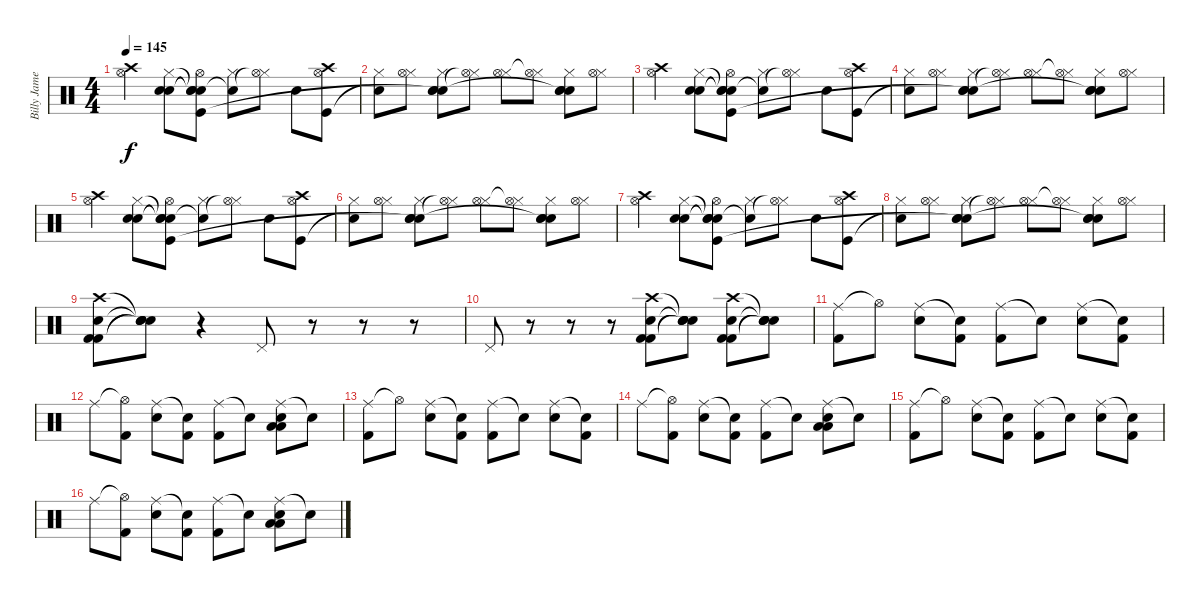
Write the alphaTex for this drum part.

\track ("Billy James (Drums)" "Billy Jame") {instrument percussion}
\staff {score}
\articulation defaults
\ts (4 4)
\tempo 145
\clef neutral
\ks c
("Hi-Hat (open)" "Crash high (hit)").4{dy f volume 14} ("Snare (hit) 2" "Snare (hit) 2" "Hi-Hat (closed)").8 ("Snare (hit)"{t} "Snare (hit)"{t} "Snare (hit)"{t} "Kick (hit)" "Hi-Hat (open)").8 ("Hi-Hat (closed)" "Snare (hit)"{t}).8 ("Hi-Hat (closed)" "Hi-Hat (open)"{t}).8 "Snare (hit) 2".8 ("Crash high (hit)" "Kick (hit)" "Hi-Hat (open)").8 |
("Hi-Hat (closed)" "Snare (hit)"{t}).8 ("Hi-Hat (closed)" "Hi-Hat (open)").8 ("Hi-Hat (closed)" "Snare (hit) 2" "Snare (hit) 2" "Snare (hit)"{t}).8 ("Hi-Hat (closed)" "Hi-Hat (open)"{t}).8 ("Hi-Hat (closed)" "Hi-Hat (open)").8 ("Hi-Hat (closed)" "Hi-Hat (open)"{t}).8 ("Hi-Hat (closed)" "Snare (hit) 2" "Snare (hit) 2" "Snare (hit)"{t}).8 ("Hi-Hat (closed)" "Hi-Hat (open)").8 |
("Hi-Hat (open)" "Crash high (hit)").4{volume 14} ("Snare (hit) 2" "Snare (hit) 2" "Hi-Hat (closed)").8 ("Snare (hit)"{t} "Snare (hit)"{t} "Snare (hit)"{t} "Kick (hit)" "Hi-Hat (open)").8 ("Hi-Hat (closed)" "Snare (hit)"{t}).8 ("Hi-Hat (closed)" "Hi-Hat (open)"{t}).8 "Snare (hit) 2".8 ("Crash high (hit)" "Kick (hit)" "Hi-Hat (open)").8 |
("Hi-Hat (closed)" "Snare (hit)"{t}).8 ("Hi-Hat (closed)" "Hi-Hat (open)").8 ("Hi-Hat (closed)" "Snare (hit) 2" "Snare (hit) 2" "Snare (hit)"{t}).8 ("Hi-Hat (closed)" "Hi-Hat (open)"{t}).8 ("Hi-Hat (closed)" "Hi-Hat (open)").8 ("Hi-Hat (closed)" "Hi-Hat (open)"{t}).8 ("Hi-Hat (closed)" "Snare (hit) 2" "Snare (hit) 2" "Snare (hit)"{t}).8 ("Hi-Hat (closed)" "Hi-Hat (open)").8 |
("Hi-Hat (open)" "Crash high (hit)").4{volume 14} ("Snare (hit) 2" "Snare (hit) 2" "Hi-Hat (closed)").8 ("Snare (hit)"{t} "Snare (hit)"{t} "Snare (hit)"{t} "Kick (hit)" "Hi-Hat (open)").8 ("Hi-Hat (closed)" "Snare (hit)"{t}).8 ("Hi-Hat (closed)" "Hi-Hat (open)"{t}).8 "Snare (hit) 2".8 ("Crash high (hit)" "Kick (hit)" "Hi-Hat (open)").8 |
("Hi-Hat (closed)" "Snare (hit)"{t}).8 ("Hi-Hat (closed)" "Hi-Hat (open)").8 ("Hi-Hat (closed)" "Snare (hit) 2" "Snare (hit) 2" "Snare (hit)"{t}).8 ("Hi-Hat (closed)" "Hi-Hat (open)"{t}).8 ("Hi-Hat (closed)" "Hi-Hat (open)").8 ("Hi-Hat (closed)" "Hi-Hat (open)"{t}).8 ("Hi-Hat (closed)" "Snare (hit) 2" "Snare (hit) 2" "Snare (hit)"{t}).8 ("Hi-Hat (closed)" "Hi-Hat (open)").8 |
("Hi-Hat (open)" "Crash high (hit)").4{volume 14} ("Snare (hit) 2" "Snare (hit) 2" "Hi-Hat (closed)").8 ("Snare (hit)"{t} "Snare (hit)"{t} "Snare (hit)"{t} "Kick (hit)" "Hi-Hat (open)").8 ("Hi-Hat (closed)" "Snare (hit)"{t}).8 ("Hi-Hat (closed)" "Hi-Hat (open)"{t}).8 "Snare (hit) 2".8 ("Crash high (hit)" "Kick (hit)" "Hi-Hat (open)").8 |
("Hi-Hat (closed)" "Snare (hit)"{t}).8 ("Hi-Hat (closed)" "Hi-Hat (open)").8 ("Hi-Hat (closed)" "Snare (hit) 2" "Snare (hit) 2" "Snare (hit)"{t}).8 ("Hi-Hat (closed)" "Hi-Hat (open)"{t}).8 ("Hi-Hat (closed)" "Hi-Hat (open)").8 ("Hi-Hat (closed)" "Hi-Hat (open)"{t}).8 ("Hi-Hat (closed)" "Snare (hit) 2" "Snare (hit) 2" "Snare (hit)"{t}).8 ("Hi-Hat (closed)" "Hi-Hat (open)").8 |
("Crash high (hit)" "Kick (hit) 2" "Kick (hit) 2" "Snare (hit) 2").8 ("Snare (hit)"{t} "Snare (hit)"{t} "Snare (hit)"{t} "Snare (hit)"{t}).8 r.4 "Pedal Hi-Hat (hit)".8 r.8 r.8 r.8 |
"Pedal Hi-Hat (hit)".8 r.8 r.8 r.8 ("Snare (hit) 2" "Kick (hit) 2" "Crash high (hit)" "Kick (hit) 2").8 ("Snare (hit)"{t} "Snare (hit)"{t} "Snare (hit)"{t} "Snare (hit)"{t}).8 ("Crash high (hit)" "Kick (hit) 2" "Kick (hit) 2" "Snare (hit) 2").8 ("Snare (hit)"{t} "Snare (hit)"{t} "Snare (hit)"{t} "Snare (hit)"{t}).8 |
("Ride (middle)" "Kick (hit) 2").8 "Hi-Hat (open)"{t}.8 ("Ride (middle)" "Snare (hit) 2").8 ("Snare (hit)"{t} "Kick (hit) 2").8 ("Ride (middle)" "Kick (hit) 2").8 "Snare (hit)"{t}.8 ("Ride (middle)" "Snare (hit) 2").8 ("Snare (hit)"{t} "Kick (hit) 2").8 |
"Ride (middle)".8 ("Hi-Hat (open)"{t} "Kick (hit) 2").8 ("Ride (middle)" "Snare (hit) 2").8 ("Snare (hit)"{t} "Kick (hit) 2").8 ("Ride (middle)" "Kick (hit) 2").8 "Snare (hit)"{t}.8 ("Ride (middle)" "Low Floor Tom (hit)" "Low Floor Tom (hit)" "Snare (hit) 2").8 "Snare (hit)"{t}.8 |
("Ride (middle)" "Kick (hit) 2").8 "Hi-Hat (open)"{t}.8 ("Ride (middle)" "Snare (hit) 2").8 ("Snare (hit)"{t} "Kick (hit) 2").8 ("Ride (middle)" "Kick (hit) 2").8 "Snare (hit)"{t}.8 ("Ride (middle)" "Snare (hit) 2").8 ("Snare (hit)"{t} "Kick (hit) 2").8 |
"Ride (middle)".8 ("Hi-Hat (open)"{t} "Kick (hit) 2").8 ("Ride (middle)" "Snare (hit) 2").8 ("Snare (hit)"{t} "Kick (hit) 2").8 ("Ride (middle)" "Kick (hit) 2").8 "Snare (hit)"{t}.8 ("Ride (middle)" "Low Floor Tom (hit)" "Low Floor Tom (hit)" "Snare (hit) 2").8 "Snare (hit)"{t}.8 |
("Ride (middle)" "Kick (hit) 2").8 "Hi-Hat (open)"{t}.8 ("Ride (middle)" "Snare (hit) 2").8 ("Snare (hit)"{t} "Kick (hit) 2").8 ("Ride (middle)" "Kick (hit) 2").8 "Snare (hit)"{t}.8 ("Ride (middle)" "Snare (hit) 2").8 ("Snare (hit)"{t} "Kick (hit) 2").8 |
"Ride (middle)".8 ("Hi-Hat (open)"{t} "Kick (hit) 2").8 ("Ride (middle)" "Snare (hit) 2").8 ("Snare (hit)"{t} "Kick (hit) 2").8 ("Ride (middle)" "Kick (hit) 2").8 "Snare (hit)"{t}.8 ("Ride (middle)" "Low Floor Tom (hit)" "Low Floor Tom (hit)" "Snare (hit) 2").8 "Snare (hit)"{t}.8
